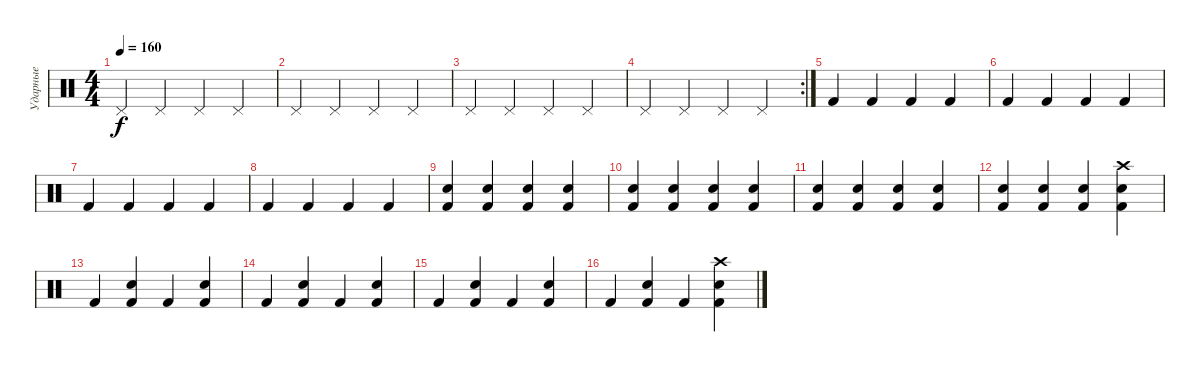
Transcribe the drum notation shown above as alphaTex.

\track ("Ударные" "Ударные") {instrument percussion}
\staff {score}
\articulation defaults
\ts (4 4)
\tempo 160
\clef neutral
\ks c "Pedal Hi-Hat (hit)".4{dy f} "Pedal Hi-Hat (hit)".4 "Pedal Hi-Hat (hit)".4 "Pedal Hi-Hat (hit)".4
|
"Pedal Hi-Hat (hit)".4 "Pedal Hi-Hat (hit)".4 "Pedal Hi-Hat (hit)".4 "Pedal Hi-Hat (hit)".4 |
"Pedal Hi-Hat (hit)".4 "Pedal Hi-Hat (hit)".4 "Pedal Hi-Hat (hit)".4 "Pedal Hi-Hat (hit)".4 |
\rc 2 "Pedal Hi-Hat (hit)".4 "Pedal Hi-Hat (hit)".4 "Pedal Hi-Hat (hit)".4 "Pedal Hi-Hat (hit)".4
|
"Kick (hit) 2".4 "Kick (hit) 2".4 "Kick (hit) 2".4 "Kick (hit) 2".4 |
"Kick (hit) 2".4 "Kick (hit) 2".4 "Kick (hit) 2".4 "Kick (hit) 2".4 |
"Kick (hit) 2".4 "Kick (hit) 2".4 "Kick (hit) 2".4 "Kick (hit) 2".4 |
"Kick (hit) 2".4 "Kick (hit) 2".4 "Kick (hit) 2".4 "Kick (hit) 2".4 |
("Kick (hit) 2" "Snare (hit) 2").4 ("Kick (hit) 2" "Snare (hit) 2").4 ("Kick (hit) 2" "Snare (hit) 2").4 ("Kick (hit) 2" "Snare (hit) 2").4 |
("Kick (hit) 2" "Snare (hit) 2").4 ("Kick (hit) 2" "Snare (hit) 2").4 ("Kick (hit) 2" "Snare (hit) 2").4 ("Kick (hit) 2" "Snare (hit) 2").4 |
("Kick (hit) 2" "Snare (hit) 2").4 ("Kick (hit) 2" "Snare (hit) 2").4 ("Kick (hit) 2" "Snare (hit) 2").4 ("Kick (hit) 2" "Snare (hit) 2").4 |
("Kick (hit) 2" "Snare (hit) 2").4 ("Kick (hit) 2" "Snare (hit) 2").4 ("Kick (hit) 2" "Snare (hit) 2").4 ("Kick (hit) 2" "Snare (hit) 2" "Crash high (hit)").4 |
"Kick (hit) 2".4 ("Kick (hit) 2" "Snare (hit) 2").4 "Kick (hit) 2".4 ("Kick (hit) 2" "Snare (hit) 2").4 |
"Kick (hit) 2".4 ("Kick (hit) 2" "Snare (hit) 2").4 "Kick (hit) 2".4 ("Kick (hit) 2" "Snare (hit) 2").4 |
"Kick (hit) 2".4 ("Kick (hit) 2" "Snare (hit) 2").4 "Kick (hit) 2".4 ("Kick (hit) 2" "Snare (hit) 2").4 |
"Kick (hit) 2".4 ("Kick (hit) 2" "Snare (hit) 2").4 "Kick (hit) 2".4 ("Kick (hit) 2" "Snare (hit) 2" "Crash high (hit)").4
